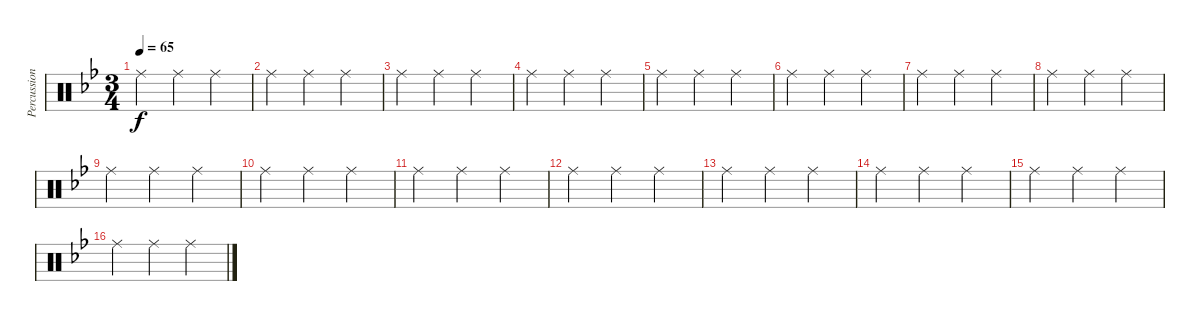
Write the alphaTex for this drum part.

\track ("Percussion" "Percussion") {instrument percussion}
\staff {score}
\articulation defaults
\ts (3 4)
\tempo 65
\clef neutral
\ks gminor "Ride (middle)".4{dy f} "Ride (middle)".4 "Ride (middle)".4
|
"Ride (middle)".4 "Ride (middle)".4 "Ride (middle)".4 |
"Ride (middle)".4 "Ride (middle)".4 "Ride (middle)".4 |
"Ride (middle)".4 "Ride (middle)".4 "Ride (middle)".4 |
"Ride (middle)".4 "Ride (middle)".4 "Ride (middle)".4 |
"Ride (middle)".4 "Ride (middle)".4 "Ride (middle)".4 |
"Ride (middle)".4 "Ride (middle)".4 "Ride (middle)".4 |
"Ride (middle)".4 "Ride (middle)".4 "Ride (middle)".4 |
"Ride (middle)".4 "Ride (middle)".4 "Ride (middle)".4 |
"Ride (middle)".4 "Ride (middle)".4 "Ride (middle)".4 |
"Ride (middle)".4 "Ride (middle)".4 "Ride (middle)".4 |
"Ride (middle)".4 "Ride (middle)".4 "Ride (middle)".4 |
"Ride (middle)".4 "Ride (middle)".4 "Ride (middle)".4 |
"Ride (middle)".4 "Ride (middle)".4 "Ride (middle)".4 |
"Ride (middle)".4 "Ride (middle)".4 "Ride (middle)".4 |
"Ride (middle)".4 "Ride (middle)".4 "Ride (middle)".4
